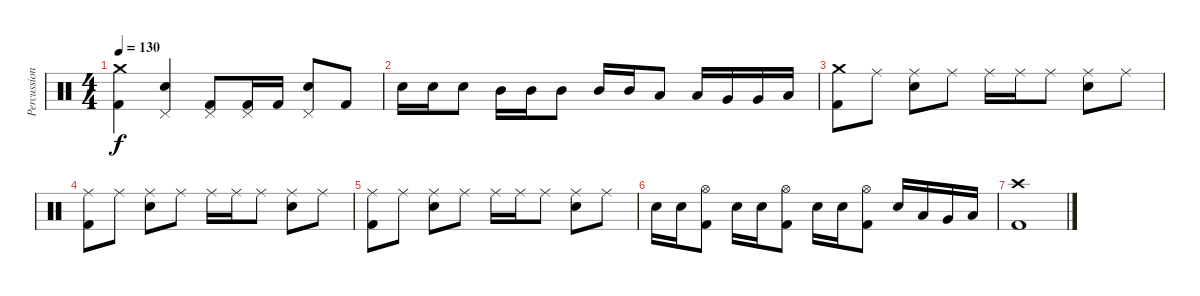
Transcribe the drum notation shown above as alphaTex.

\track ("Percussion" "Percussion") {instrument percussion}
\staff {score}
\articulation defaults
\ts (4 4)
\tempo 130
\clef neutral
\ks c
("Crash medium (hit)" "Kick (hit) 2").4{dy f} ("Electric Snare (hit)" "Pedal Hi-Hat (hit)").4 ("Pedal Hi-Hat (hit)" "Kick (hit) 2").8 ("Pedal Hi-Hat (hit)" "Kick (hit) 2").16 "Kick (hit) 2".16 ("Pedal Hi-Hat (hit)" "Electric Snare (hit)").8 "Kick (hit) 2".8 |
"Electric Snare (hit)".16 "Electric Snare (hit)".16 "Electric Snare (hit)".8 "Mid Tom (hit)".16 "Mid Tom (hit)".16 "Mid Tom (hit)".8 "Mid Tom (hit)".16 "Mid Tom (hit)".16 "Low Tom (hit)".8 "Low Tom (hit)".16 "Very Low Tom (hit)".16 "Very Low Tom (hit)".16 "Low Floor Tom (hit)".16 |
("Kick (hit) 2" "Crash medium (hit)").8 "Ride (middle)".8 ("Electric Snare (hit)" "Ride (middle)").8 "Ride (middle)".8 "Ride (middle)".16 "Ride (middle)".16 "Ride (middle)".8 ("Electric Snare (hit)" "Ride (middle)").8 "Ride (middle)".8 |
("Kick (hit) 2" "Ride (middle)").8 "Ride (middle)".8 ("Electric Snare (hit)" "Ride (middle)").8 "Ride (middle)".8 "Ride (middle)".16 "Ride (middle)".16 "Ride (middle)".8 ("Electric Snare (hit)" "Ride (middle)").8 "Ride (middle)".8 |
("Kick (hit) 2" "Ride (middle)").8 "Ride (middle)".8 ("Electric Snare (hit)" "Ride (middle)").8 "Ride (middle)".8 "Ride (middle)".16 "Ride (middle)".16 "Ride (middle)".8 ("Electric Snare (hit)" "Ride (middle)").8 "Ride (middle)".8 |
"Electric Snare (hit)".16 "Electric Snare (hit)".16 ("Hi-Hat (open)" "Kick (hit) 2").8 "Electric Snare (hit)".16 "Electric Snare (hit)".16 ("Hi-Hat (open)" "Kick (hit) 2").8 "Electric Snare (hit)".16 "Electric Snare (hit)".16 ("Hi-Hat (open)" "Kick (hit) 2").8 "Electric Snare (hit)".16 "Low Tom (hit)".16 "Very Low Tom (hit)".16 "Low Floor Tom (hit)".16 |
("Crash high (hit)" "Kick (hit) 2").1
